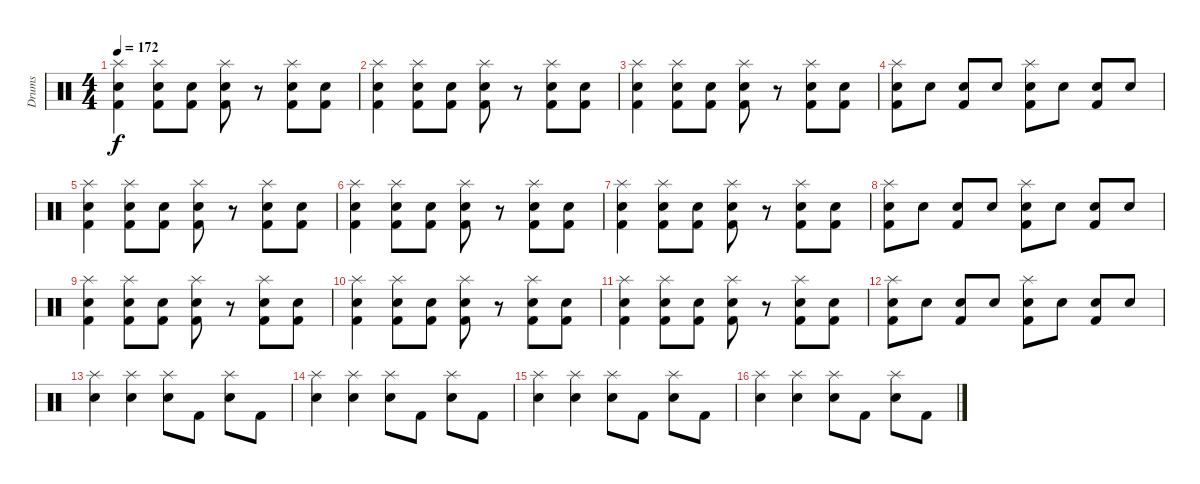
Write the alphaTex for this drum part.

\track ("Drums" "Drums") {instrument percussion}
\staff {score}
\articulation defaults
\ts (4 4)
\tempo 172
\clef neutral
\ks c
("Splash (hit)" "Kick (hit) 2" "Electric Snare (hit)").4{dy f} ("Splash (hit)" "Kick (hit) 2" "Electric Snare (hit)").8 ("Kick (hit) 2" "Electric Snare (hit)").8 ("Splash (hit)" "Kick (hit) 2" "Electric Snare (hit)").8 r.8 ("Splash (hit)" "Kick (hit) 2" "Electric Snare (hit)").8 ("Kick (hit) 2" "Electric Snare (hit)").8 |
("Splash (hit)" "Kick (hit) 2" "Electric Snare (hit)").4 ("Splash (hit)" "Kick (hit) 2" "Electric Snare (hit)").8 ("Kick (hit) 2" "Electric Snare (hit)").8 ("Splash (hit)" "Kick (hit) 2" "Electric Snare (hit)").8 r.8 ("Splash (hit)" "Kick (hit) 2" "Electric Snare (hit)").8 ("Kick (hit) 2" "Electric Snare (hit)").8 |
("Splash (hit)" "Kick (hit) 2" "Electric Snare (hit)").4 ("Splash (hit)" "Kick (hit) 2" "Electric Snare (hit)").8 ("Kick (hit) 2" "Electric Snare (hit)").8 ("Splash (hit)" "Kick (hit) 2" "Electric Snare (hit)").8 r.8 ("Splash (hit)" "Kick (hit) 2" "Electric Snare (hit)").8 ("Kick (hit) 2" "Electric Snare (hit)").8 |
("Splash (hit)" "Snare (hit) 2" "Kick (hit) 2").8 "Snare (hit) 2".8 ("Snare (hit) 2" "Kick (hit) 2").8 "Snare (hit) 2".8 ("Splash (hit)" "Snare (hit) 2" "Kick (hit) 2").8 "Snare (hit) 2".8 ("Snare (hit) 2" "Kick (hit) 2").8 "Snare (hit) 2".8 |
("Splash (hit)" "Kick (hit) 2" "Electric Snare (hit)").4 ("Splash (hit)" "Kick (hit) 2" "Electric Snare (hit)").8 ("Kick (hit) 2" "Electric Snare (hit)").8 ("Splash (hit)" "Kick (hit) 2" "Electric Snare (hit)").8 r.8 ("Splash (hit)" "Kick (hit) 2" "Electric Snare (hit)").8 ("Kick (hit) 2" "Electric Snare (hit)").8 |
("Splash (hit)" "Kick (hit) 2" "Electric Snare (hit)").4 ("Splash (hit)" "Kick (hit) 2" "Electric Snare (hit)").8 ("Kick (hit) 2" "Electric Snare (hit)").8 ("Splash (hit)" "Kick (hit) 2" "Electric Snare (hit)").8 r.8 ("Splash (hit)" "Kick (hit) 2" "Electric Snare (hit)").8 ("Kick (hit) 2" "Electric Snare (hit)").8 |
("Splash (hit)" "Kick (hit) 2" "Electric Snare (hit)").4 ("Splash (hit)" "Kick (hit) 2" "Electric Snare (hit)").8 ("Kick (hit) 2" "Electric Snare (hit)").8 ("Splash (hit)" "Kick (hit) 2" "Electric Snare (hit)").8 r.8 ("Splash (hit)" "Kick (hit) 2" "Electric Snare (hit)").8 ("Kick (hit) 2" "Electric Snare (hit)").8 |
("Splash (hit)" "Snare (hit) 2" "Kick (hit) 2").8 "Snare (hit) 2".8 ("Snare (hit) 2" "Kick (hit) 2").8 "Snare (hit) 2".8 ("Splash (hit)" "Snare (hit) 2" "Kick (hit) 2").8 "Snare (hit) 2".8 ("Snare (hit) 2" "Kick (hit) 2").8 "Snare (hit) 2".8 |
("Splash (hit)" "Kick (hit) 2" "Electric Snare (hit)").4 ("Splash (hit)" "Kick (hit) 2" "Electric Snare (hit)").8 ("Kick (hit) 2" "Electric Snare (hit)").8 ("Splash (hit)" "Kick (hit) 2" "Electric Snare (hit)").8 r.8 ("Splash (hit)" "Kick (hit) 2" "Electric Snare (hit)").8 ("Kick (hit) 2" "Electric Snare (hit)").8 |
("Splash (hit)" "Kick (hit) 2" "Electric Snare (hit)").4 ("Splash (hit)" "Kick (hit) 2" "Electric Snare (hit)").8 ("Kick (hit) 2" "Electric Snare (hit)").8 ("Splash (hit)" "Kick (hit) 2" "Electric Snare (hit)").8 r.8 ("Splash (hit)" "Kick (hit) 2" "Electric Snare (hit)").8 ("Kick (hit) 2" "Electric Snare (hit)").8 |
("Splash (hit)" "Kick (hit) 2" "Electric Snare (hit)").4 ("Splash (hit)" "Kick (hit) 2" "Electric Snare (hit)").8 ("Kick (hit) 2" "Electric Snare (hit)").8 ("Splash (hit)" "Kick (hit) 2" "Electric Snare (hit)").8 r.8 ("Splash (hit)" "Kick (hit) 2" "Electric Snare (hit)").8 ("Kick (hit) 2" "Electric Snare (hit)").8 |
("Splash (hit)" "Snare (hit) 2" "Kick (hit) 2").8 "Snare (hit) 2".8 ("Snare (hit) 2" "Kick (hit) 2").8 "Snare (hit) 2".8 ("Splash (hit)" "Snare (hit) 2" "Kick (hit) 2").8 "Snare (hit) 2".8 ("Snare (hit) 2" "Kick (hit) 2").8 "Snare (hit) 2".8 |
("Splash (hit)" "Snare (hit) 2").4 ("Splash (hit)" "Snare (hit) 2").4 ("Splash (hit)" "Snare (hit) 2").8 "Kick (hit) 2".8 ("Splash (hit)" "Snare (hit) 2").8 "Kick (hit) 2".8 |
("Splash (hit)" "Snare (hit) 2").4 ("Splash (hit)" "Snare (hit) 2").4 ("Splash (hit)" "Snare (hit) 2").8 "Kick (hit) 2".8 ("Splash (hit)" "Snare (hit) 2").8 "Kick (hit) 2".8 |
("Splash (hit)" "Snare (hit) 2").4 ("Splash (hit)" "Snare (hit) 2").4 ("Splash (hit)" "Snare (hit) 2").8 "Kick (hit) 2".8 ("Splash (hit)" "Snare (hit) 2").8 "Kick (hit) 2".8 |
("Splash (hit)" "Snare (hit) 2").4 ("Splash (hit)" "Snare (hit) 2").4 ("Splash (hit)" "Snare (hit) 2").8 "Kick (hit) 2".8 ("Splash (hit)" "Snare (hit) 2").8 "Kick (hit) 2".8
